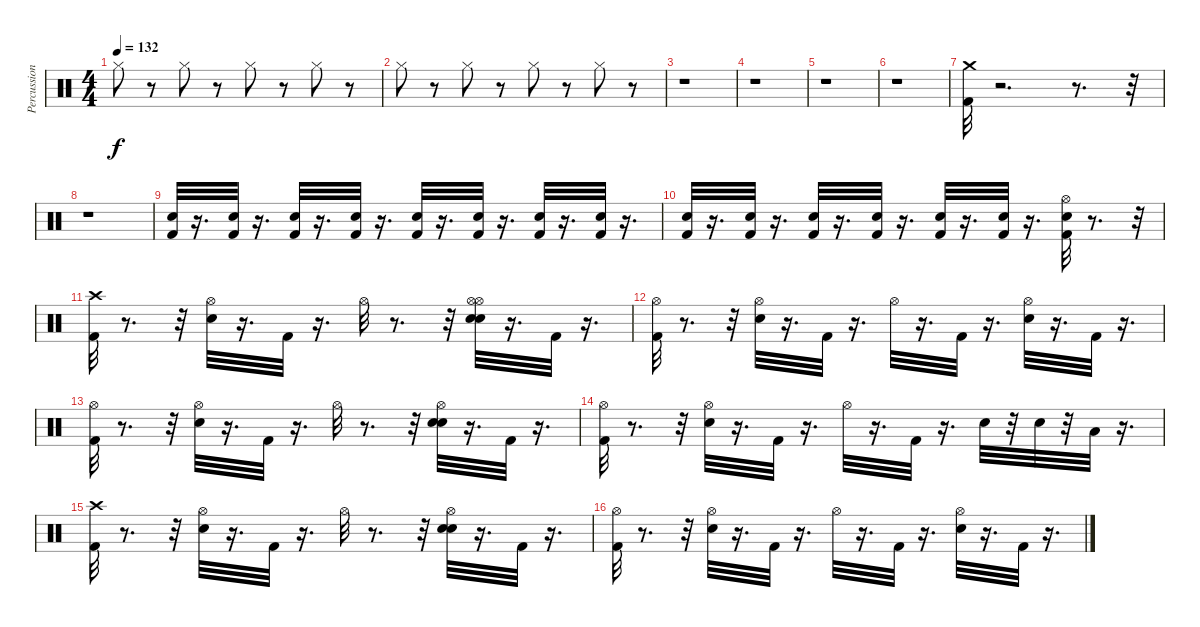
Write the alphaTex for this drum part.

\track ("Percussion" "Percussion") {instrument percussion}
\staff {score}
\articulation defaults
\ts (4 4)
\tempo 132
\clef neutral
\ks c "Hi-Hat (closed)".8{dy f}
r.8 "Hi-Hat (closed)".8 r.8 "Hi-Hat (closed)".8 r.8 "Hi-Hat (closed)".8 r.8 |
"Hi-Hat (closed)".8 r.8 "Hi-Hat (closed)".8 r.8 "Hi-Hat (closed)".8 r.8 "Hi-Hat (closed)".8 r.8 |
r.1 |
r.1 |
r.1 |
r.1 |
("Kick (hit) 2" "Crash medium (hit)").32 r.2{d} r.8{d} r.32 |
r.1 |
("Kick (hit) 2" "Snare (hit) 2").32 r.16{d} ("Kick (hit) 2" "Snare (hit) 2").32 r.16{d} ("Kick (hit) 2" "Snare (hit) 2").32 r.16{d} ("Snare (hit) 2" "Kick (hit) 2").32 r.16{d} ("Kick (hit) 2" "Snare (hit) 2").32 r.16{d} ("Kick (hit) 2" "Snare (hit) 2").32 r.16{d} ("Kick (hit) 2" "Snare (hit) 2").32 r.16{d} ("Kick (hit) 2" "Snare (hit) 2").32 r.16{d} |
("Kick (hit) 2" "Snare (hit) 2").32 r.16{d} ("Kick (hit) 2" "Snare (hit) 2").32 r.16{d} ("Kick (hit) 2" "Snare (hit) 2").32 r.16{d} ("Snare (hit) 2" "Kick (hit) 2").32 r.16{d} ("Kick (hit) 2" "Snare (hit) 2").32 r.16{d} ("Kick (hit) 2" "Snare (hit) 2").32 r.16{d} ("Kick (hit) 2" "Snare (hit) 2" "Hi-Hat (open)").32 r.8{d} r.32 |
("Kick (hit) 2" "Crash high (hit)").32 r.8{d} r.32 ("Snare (hit) 2" "Hi-Hat (open)").32 r.16{d} "Kick (hit) 2".32 r.16{d} "Hi-Hat (open)".32 r.8{d} r.32 ("Snare (hit) 2" "Hi-Hat (open)" "Snare (hit) 2" "Hi-Hat (open)").32 r.16{d} "Kick (hit) 2".32 r.16{d} |
("Kick (hit) 2" "Hi-Hat (open)").32 r.8{d} r.32 ("Snare (hit) 2" "Hi-Hat (open)").32 r.16{d} "Kick (hit) 2".32 r.16{d} "Hi-Hat (open)".32 r.16{d} "Kick (hit) 2".32 r.16{d} ("Snare (hit) 2" "Hi-Hat (open)").32 r.16{d} "Kick (hit) 2".32 r.16{d} |
("Hi-Hat (open)" "Kick (hit) 2").32 r.8{d} r.32 ("Snare (hit) 2" "Hi-Hat (open)").32 r.16{d} "Kick (hit) 2".32 r.16{d} "Hi-Hat (open)".32 r.8{d} r.32 ("Snare (hit) 2" "Hi-Hat (open)" "Snare (hit) 2").32 r.16{d} "Kick (hit) 2".32 r.16{d} |
("Kick (hit) 2" "Hi-Hat (open)").32 r.8{d} r.32 ("Snare (hit) 2" "Hi-Hat (open)").32 r.16{d} "Kick (hit) 2".32 r.16{d} "Hi-Hat (open)".32 r.16{d} "Kick (hit) 2".32 r.16{d} "Snare (hit) 2".32 r.32 "Snare (hit) 2".32 r.32 "Low Floor Tom (hit)".32 r.16{d} |
("Kick (hit) 2" "Crash high (hit)").32 r.8{d} r.32 ("Snare (hit) 2" "Hi-Hat (open)").32 r.16{d} "Kick (hit) 2".32 r.16{d} "Hi-Hat (open)".32 r.8{d} r.32 ("Snare (hit) 2" "Hi-Hat (open)" "Snare (hit) 2").32 r.16{d} "Kick (hit) 2".32 r.16{d} |
("Kick (hit) 2" "Hi-Hat (open)").32 r.8{d} r.32 ("Snare (hit) 2" "Hi-Hat (open)").32 r.16{d} "Kick (hit) 2".32 r.16{d} "Hi-Hat (open)".32 r.16{d} "Kick (hit) 2".32 r.16{d} ("Hi-Hat (open)" "Snare (hit) 2").32 r.16{d} "Kick (hit) 2".32 r.16{d}
